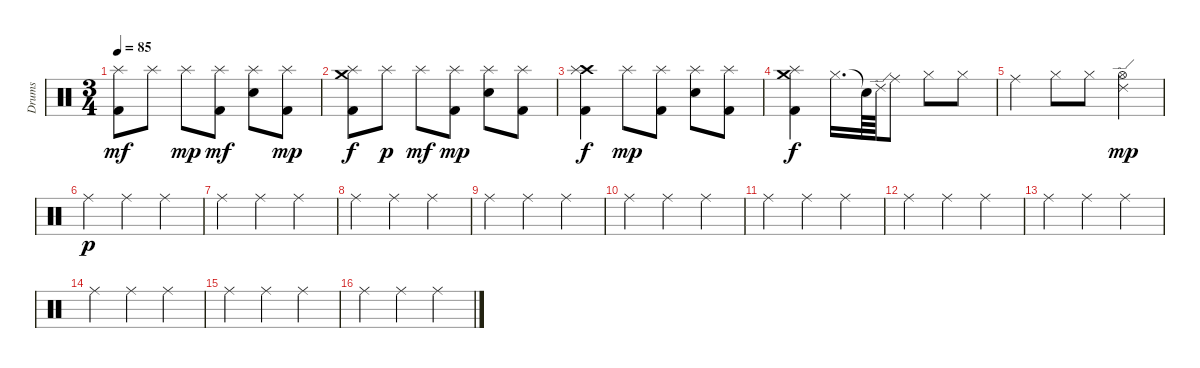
\track ("Drums" "Drums") {instrument percussion}
\staff {score}
\articulation defaults
\ts (3 4)
\tempo 85
\clef neutral
\ks c
("Kick (hit) 2" "Splash (hit)").8{dy mf} "Splash (hit)".8 "Splash (hit)".8{dy mp} ("Kick (hit) 2" "Splash (hit)").8{dy mf} ("Snare (hit) 2" "Splash (hit)").8 ("Kick (hit) 2" "Splash (hit)").8{dy mp} |
("Kick (hit) 2" "Splash (hit)" "Crash medium (hit)").8{dy f} "Splash (hit)".8{dy p} "Splash (hit)".8{dy mf} ("Kick (hit) 2" "Splash (hit)").8{dy mp} ("Snare (hit) 2" "Splash (hit)").8 ("Kick (hit) 2" "Splash (hit)").8 |
("Kick (hit) 2" "Crash high (hit)" "Splash (hit)").4{dy f} "Splash (hit)".8{dy mp} ("Kick (hit) 2" "Splash (hit)").8 ("Snare (hit) 2" "Splash (hit)").8 ("Kick (hit) 2" "Splash (hit)").8 |
("Kick (hit) 2" "Splash (hit)" "Crash medium (hit)").4{dy f} "Hi-Hat (closed)".16{d} "Snare (hit)"{t}.64 "Ride (edge) 2".64 "Ride (middle)".8 "Hi-Hat (closed)".8 "Hi-Hat (closed)".8 |
"Ride (middle)".4 "Hi-Hat (closed)".8 "Hi-Hat (closed)".8 ("Hi-Hat (open)" "Ride (edge) 2").4{dy mp} |
"Ride (middle)".4{dy p} "Ride (middle)".4 "Ride (middle)".4 |
"Ride (middle)".4 "Ride (middle)".4 "Ride (middle)".4 |
"Ride (middle)".4 "Ride (middle)".4 "Ride (middle)".4 |
"Ride (middle)".4 "Ride (middle)".4 "Ride (middle)".4 |
"Ride (middle)".4 "Ride (middle)".4 "Ride (middle)".4 |
"Ride (middle)".4 "Ride (middle)".4 "Ride (middle)".4 |
"Ride (middle)".4 "Ride (middle)".4 "Ride (middle)".4 |
"Ride (middle)".4 "Ride (middle)".4 "Ride (middle)".4 |
"Ride (middle)".4 "Ride (middle)".4 "Ride (middle)".4 |
"Ride (middle)".4 "Ride (middle)".4 "Ride (middle)".4 |
"Ride (middle)".4 "Ride (middle)".4 "Ride (middle)".4
